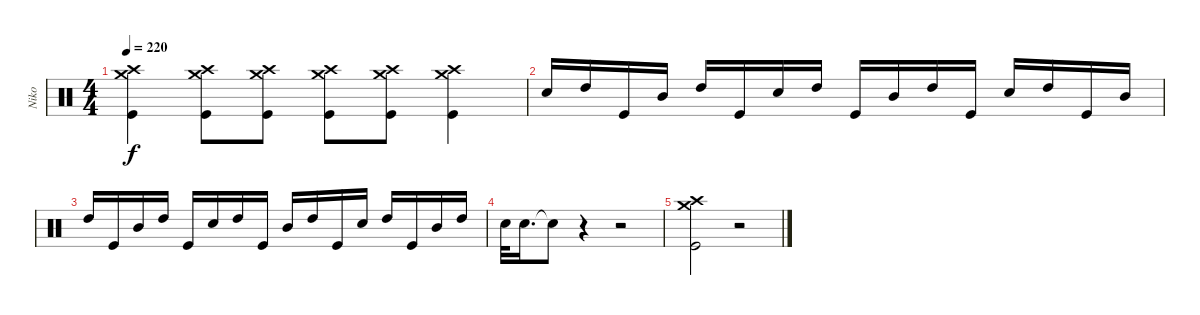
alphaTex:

\track ("Niko" "Niko") {instrument percussion}
\staff {score}
\articulation defaults
\ts (4 4)
\tempo 220
\clef neutral
\ks c
("Crash high (hit)" "Crash medium (hit)" "Kick (hit)").4{dy f} ("Crash high (hit)" "Crash medium (hit)" "Kick (hit)").8 ("Crash medium (hit)" "Crash high (hit)" "Kick (hit)").8 ("Crash medium (hit)" "Crash high (hit)" "Kick (hit)").8 ("Crash high (hit)" "Crash medium (hit)" "Kick (hit)").8 ("Crash medium (hit)" "Crash high (hit)" "Kick (hit)").4 |
"Snare (hit) 2".16 "High Tom (hit)".16 "Kick (hit)".16 "Mid Tom (hit)".16 "High Tom (hit)".16 "Kick (hit)".16 "Snare (hit) 2".16 "High Tom (hit)".16 "Kick (hit)".16 "Mid Tom (hit)".16 "High Tom (hit)".16 "Kick (hit)".16 "Snare (hit) 2".16 "High Tom (hit)".16 "Kick (hit)".16 "Mid Tom (hit)".16 |
"High Tom (hit)".16 "Kick (hit)".16 "Mid Tom (hit)".16 "High Tom (hit)".16 "Kick (hit)".16 "Snare (hit) 2".16 "High Tom (hit)".16 "Kick (hit)".16 "Mid Tom (hit)".16 "High Tom (hit)".16 "Kick (hit)".16 "Snare (hit) 2".16 "High Tom (hit)".16 "Kick (hit)".16 "Mid Tom (hit)".16 "High Tom (hit)".16 |
"Snare (hit) 2".32 "Snare (hit) 2".16{d} "Snare (hit)"{t}.8 r.4 r.2 |
("Crash medium (hit)" "Crash high (hit)" "Kick (hit)").2 r.2
